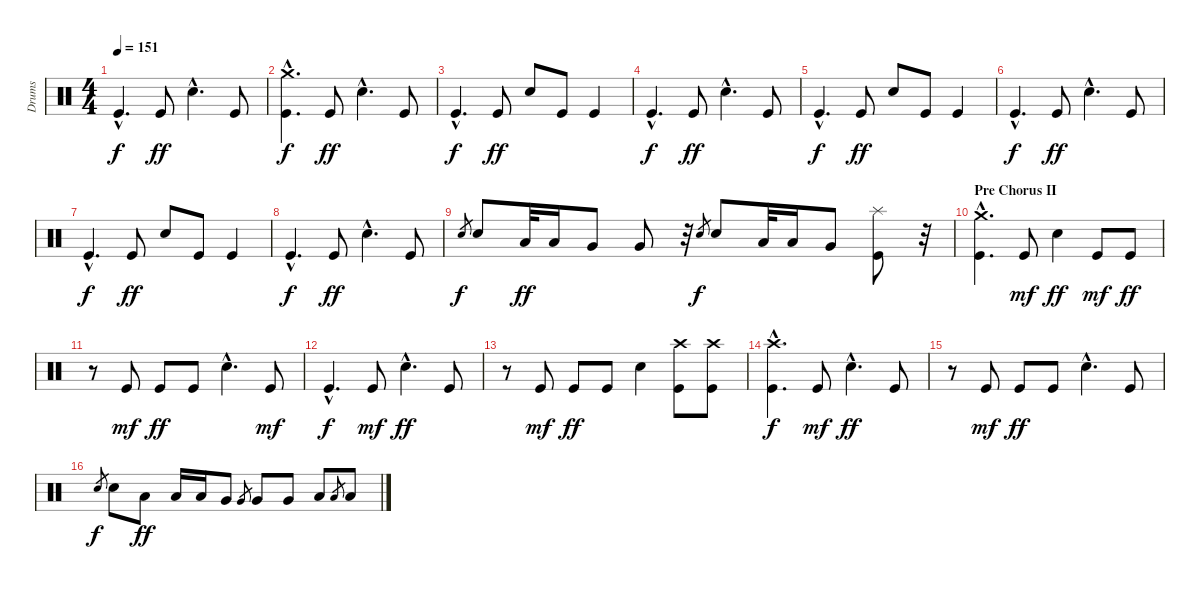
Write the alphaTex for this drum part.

\track ("Drums" "Drums") {instrument percussion}
\staff {score}
\articulation defaults
\ts (4 4)
\tempo 151
\clef neutral
\ks c "Kick (hit)"{hac}.4{d dy f} "Kick (hit)".8{dy ff} "Snare (hit) 2"{hac}.4{d} "Kick (hit)".8
|
("Crash medium (hit)"{hac} "Kick (hit)"{hac}).4{d dy f} "Kick (hit)".8{dy ff} "Snare (hit) 2"{hac}.4{d} "Kick (hit)".8 |
"Kick (hit)"{hac}.4{d dy f} "Kick (hit)".8{dy ff} "Snare (hit) 2".8 "Kick (hit)".8 "Kick (hit)".4 |
"Kick (hit)"{hac}.4{d dy f} "Kick (hit)".8{dy ff} "Snare (hit) 2"{hac}.4{d} "Kick (hit)".8 |
"Kick (hit)"{hac}.4{d dy f} "Kick (hit)".8{dy ff} "Snare (hit) 2".8 "Kick (hit)".8 "Kick (hit)".4 |
"Kick (hit)"{hac}.4{d dy f} "Kick (hit)".8{dy ff} "Snare (hit) 2"{hac}.4{d} "Kick (hit)".8 |
"Kick (hit)"{hac}.4{d dy f} "Kick (hit)".8{dy ff} "Snare (hit) 2".8 "Kick (hit)".8 "Kick (hit)".4 |
"Kick (hit)"{hac}.4{d dy f} "Kick (hit)".8{dy ff} "Snare (hit) 2"{hac}.4{d} "Kick (hit)".8 |
"Snare (hit) 2".8{gr dy f} "Snare (hit) 2".8 "Low Tom (hit)".32{dy ff} "Low Tom (hit)".16 "Very Low Tom (hit)".8 "Very Low Tom (hit)".8 r.32 "Snare (hit) 2".8{gr dy f} "Snare (hit) 2".8 "Low Tom (hit)".32 "Low Tom (hit)".16 "Very Low Tom (hit)".8 ("Splash (hit)" "Kick (hit)").8 r.32 |
\section ("" "Pre Chorus II")
("Crash medium (hit)"{hac} "Kick (hit)"{hac}).4{d} "Kick (hit)".8{dy mf} "Snare (hit) 2".4{dy ff} "Kick (hit)".8{dy mf} "Kick (hit)".8{dy ff} |
r.8 "Kick (hit)".8{dy mf} "Kick (hit)".8{dy ff} "Kick (hit)".8 "Snare (hit) 2"{hac}.4{d} "Kick (hit)".8{dy mf} |
"Kick (hit)"{hac}.4{d dy f} "Kick (hit)".8{dy mf} "Snare (hit) 2"{hac}.4{d dy ff} "Kick (hit)".8 |
r.8 "Kick (hit)".8{dy mf} "Kick (hit)".8{dy ff} "Kick (hit)".8 "Snare (hit) 2".4 ("Crash high (hit)" "Kick (hit)").8 ("Crash high (hit)" "Kick (hit)").8 |
("Crash high (hit)"{hac} "Kick (hit)"{hac}).4{d dy f} "Kick (hit)".8{dy mf} "Snare (hit) 2"{hac}.4{d dy ff} "Kick (hit)".8 |
r.8 "Kick (hit)".8{dy mf} "Kick (hit)".8{dy ff} "Kick (hit)".8 "Snare (hit) 2"{hac}.4{d} "Kick (hit)".8 |
"Snare (hit) 2".8{gr dy f} "Snare (hit) 2".8 "Low Tom (hit)".8{dy ff} "Low Tom (hit)".16 "Low Tom (hit)".16 "Very Low Tom (hit)".8 "Very Low Tom (hit)".8{gr} "Very Low Tom (hit)".8 "Very Low Tom (hit)".8 "Low Floor Tom (hit)".8 "Low Floor Tom (hit)".8{gr} "Low Floor Tom (hit)".8
